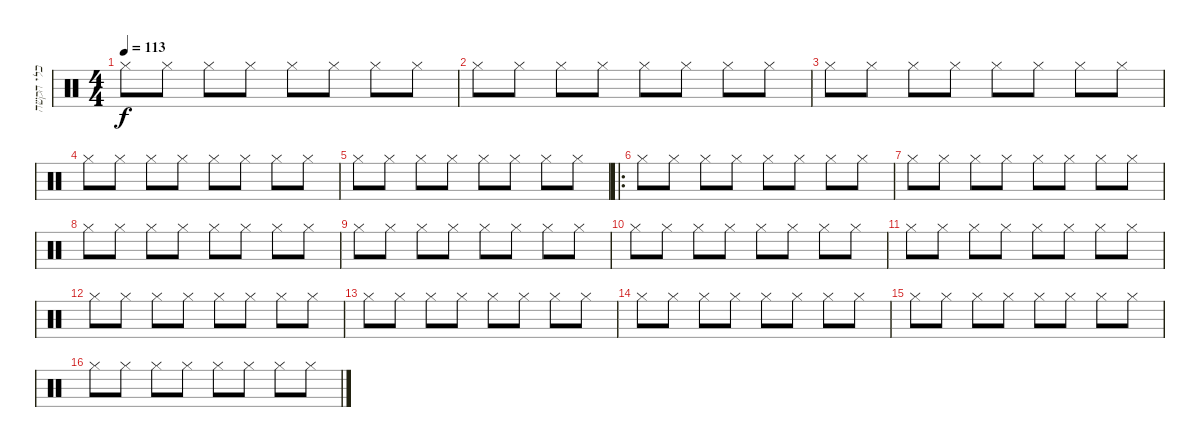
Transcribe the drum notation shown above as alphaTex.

\track ("כלי הקשה" "כלי הקשה") {instrument percussion}
\staff {score}
\articulation defaults
\ts (4 4)
\tempo 113
\clef neutral
\ks c "Hi-Hat (closed)".8{dy f} "Hi-Hat (closed)".8 "Hi-Hat (closed)".8 "Hi-Hat (closed)".8 "Hi-Hat (closed)".8 "Hi-Hat (closed)".8 "Hi-Hat (closed)".8 "Hi-Hat (closed)".8
|
"Hi-Hat (closed)".8 "Hi-Hat (closed)".8 "Hi-Hat (closed)".8 "Hi-Hat (closed)".8 "Hi-Hat (closed)".8 "Hi-Hat (closed)".8 "Hi-Hat (closed)".8 "Hi-Hat (closed)".8 |
"Hi-Hat (closed)".8 "Hi-Hat (closed)".8 "Hi-Hat (closed)".8 "Hi-Hat (closed)".8 "Hi-Hat (closed)".8 "Hi-Hat (closed)".8 "Hi-Hat (closed)".8 "Hi-Hat (closed)".8 |
"Hi-Hat (closed)".8 "Hi-Hat (closed)".8 "Hi-Hat (closed)".8 "Hi-Hat (closed)".8 "Hi-Hat (closed)".8 "Hi-Hat (closed)".8 "Hi-Hat (closed)".8 "Hi-Hat (closed)".8 |
"Hi-Hat (closed)".8 "Hi-Hat (closed)".8 "Hi-Hat (closed)".8 "Hi-Hat (closed)".8 "Hi-Hat (closed)".8 "Hi-Hat (closed)".8 "Hi-Hat (closed)".8 "Hi-Hat (closed)".8 |
\ro "Hi-Hat (closed)".8 "Hi-Hat (closed)".8 "Hi-Hat (closed)".8 "Hi-Hat (closed)".8 "Hi-Hat (closed)".8 "Hi-Hat (closed)".8 "Hi-Hat (closed)".8 "Hi-Hat (closed)".8
|
"Hi-Hat (closed)".8 "Hi-Hat (closed)".8 "Hi-Hat (closed)".8 "Hi-Hat (closed)".8 "Hi-Hat (closed)".8 "Hi-Hat (closed)".8 "Hi-Hat (closed)".8 "Hi-Hat (closed)".8 |
"Hi-Hat (closed)".8 "Hi-Hat (closed)".8 "Hi-Hat (closed)".8 "Hi-Hat (closed)".8 "Hi-Hat (closed)".8 "Hi-Hat (closed)".8 "Hi-Hat (closed)".8 "Hi-Hat (closed)".8 |
"Hi-Hat (closed)".8 "Hi-Hat (closed)".8 "Hi-Hat (closed)".8 "Hi-Hat (closed)".8 "Hi-Hat (closed)".8 "Hi-Hat (closed)".8 "Hi-Hat (closed)".8 "Hi-Hat (closed)".8 |
"Hi-Hat (closed)".8 "Hi-Hat (closed)".8 "Hi-Hat (closed)".8 "Hi-Hat (closed)".8 "Hi-Hat (closed)".8 "Hi-Hat (closed)".8 "Hi-Hat (closed)".8 "Hi-Hat (closed)".8 |
"Hi-Hat (closed)".8 "Hi-Hat (closed)".8 "Hi-Hat (closed)".8 "Hi-Hat (closed)".8 "Hi-Hat (closed)".8 "Hi-Hat (closed)".8 "Hi-Hat (closed)".8 "Hi-Hat (closed)".8 |
"Hi-Hat (closed)".8 "Hi-Hat (closed)".8 "Hi-Hat (closed)".8 "Hi-Hat (closed)".8 "Hi-Hat (closed)".8 "Hi-Hat (closed)".8 "Hi-Hat (closed)".8 "Hi-Hat (closed)".8 |
"Hi-Hat (closed)".8 "Hi-Hat (closed)".8 "Hi-Hat (closed)".8 "Hi-Hat (closed)".8 "Hi-Hat (closed)".8 "Hi-Hat (closed)".8 "Hi-Hat (closed)".8 "Hi-Hat (closed)".8 |
"Hi-Hat (closed)".8 "Hi-Hat (closed)".8 "Hi-Hat (closed)".8 "Hi-Hat (closed)".8 "Hi-Hat (closed)".8 "Hi-Hat (closed)".8 "Hi-Hat (closed)".8 "Hi-Hat (closed)".8 |
"Hi-Hat (closed)".8 "Hi-Hat (closed)".8 "Hi-Hat (closed)".8 "Hi-Hat (closed)".8 "Hi-Hat (closed)".8 "Hi-Hat (closed)".8 "Hi-Hat (closed)".8 "Hi-Hat (closed)".8 |
"Hi-Hat (closed)".8 "Hi-Hat (closed)".8 "Hi-Hat (closed)".8 "Hi-Hat (closed)".8 "Hi-Hat (closed)".8 "Hi-Hat (closed)".8 "Hi-Hat (closed)".8 "Hi-Hat (closed)".8
